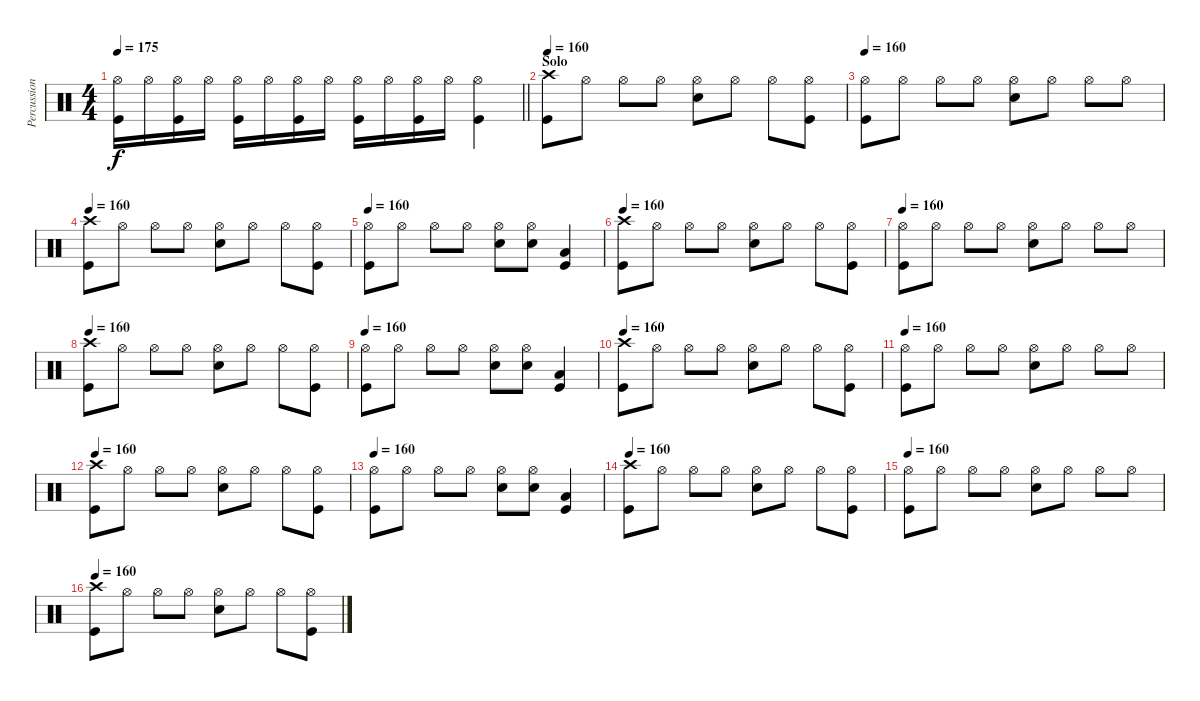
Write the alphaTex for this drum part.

\track ("Percussion" "Percussion") {instrument percussion}
\staff {score}
\articulation defaults
\ts (4 4)
\tempo 175
\clef neutral
\barLineRight lightlight
\ks c
("Hi-Hat (open)" "Kick (hit)").16{dy f} "Hi-Hat (open)".16 ("Hi-Hat (open)" "Kick (hit)").16 "Hi-Hat (open)".16 ("Hi-Hat (open)" "Kick (hit)").16 "Hi-Hat (open)".16 ("Hi-Hat (open)" "Kick (hit)").16 "Hi-Hat (open)".16 ("Hi-Hat (open)" "Kick (hit)").16 "Hi-Hat (open)".16 ("Hi-Hat (open)" "Kick (hit)").16 "Hi-Hat (open)".16 ("Hi-Hat (open)" "Kick (hit)").4 |
\section ("" "Solo")
\tempo 160
("Crash high (hit)" "Kick (hit)").8 "Hi-Hat (open)".8 "Hi-Hat (open)".8 "Hi-Hat (open)".8 ("Hi-Hat (open)" "Electric Snare (hit)").8 "Hi-Hat (open)".8 "Hi-Hat (open)".8 ("Hi-Hat (open)" "Kick (hit)").8 |
\tempo 160
("Hi-Hat (open)" "Kick (hit)").8 "Hi-Hat (open)".8 "Hi-Hat (open)".8 "Hi-Hat (open)".8 ("Hi-Hat (open)" "Electric Snare (hit)").8 "Hi-Hat (open)".8 "Hi-Hat (open)".8 "Hi-Hat (open)".8 |
\tempo 160
("Crash high (hit)" "Kick (hit)").8 "Hi-Hat (open)".8 "Hi-Hat (open)".8 "Hi-Hat (open)".8 ("Hi-Hat (open)" "Electric Snare (hit)").8 "Hi-Hat (open)".8 "Hi-Hat (open)".8 ("Hi-Hat (open)" "Kick (hit)").8 |
\tempo 160
("Hi-Hat (open)" "Kick (hit)").8 "Hi-Hat (open)".8 "Hi-Hat (open)".8 "Hi-Hat (open)".8 ("Hi-Hat (open)" "Electric Snare (hit)").8 ("Hi-Hat (open)" "Electric Snare (hit)").8 ("Low Floor Tom (hit)" "Kick (hit)").4 |
\tempo 160
("Crash high (hit)" "Kick (hit)").8 "Hi-Hat (open)".8 "Hi-Hat (open)".8 "Hi-Hat (open)".8 ("Hi-Hat (open)" "Electric Snare (hit)").8 "Hi-Hat (open)".8 "Hi-Hat (open)".8 ("Hi-Hat (open)" "Kick (hit)").8 |
\tempo 160
("Hi-Hat (open)" "Kick (hit)").8 "Hi-Hat (open)".8 "Hi-Hat (open)".8 "Hi-Hat (open)".8 ("Hi-Hat (open)" "Electric Snare (hit)").8 "Hi-Hat (open)".8 "Hi-Hat (open)".8 "Hi-Hat (open)".8 |
\tempo 160
("Crash high (hit)" "Kick (hit)").8 "Hi-Hat (open)".8 "Hi-Hat (open)".8 "Hi-Hat (open)".8 ("Hi-Hat (open)" "Electric Snare (hit)").8 "Hi-Hat (open)".8 "Hi-Hat (open)".8 ("Hi-Hat (open)" "Kick (hit)").8 |
\tempo 160
("Hi-Hat (open)" "Kick (hit)").8 "Hi-Hat (open)".8 "Hi-Hat (open)".8 "Hi-Hat (open)".8 ("Hi-Hat (open)" "Electric Snare (hit)").8 ("Hi-Hat (open)" "Electric Snare (hit)").8 ("Low Floor Tom (hit)" "Kick (hit)").4 |
\tempo 160
("Crash high (hit)" "Kick (hit)").8 "Hi-Hat (open)".8 "Hi-Hat (open)".8 "Hi-Hat (open)".8 ("Hi-Hat (open)" "Electric Snare (hit)").8 "Hi-Hat (open)".8 "Hi-Hat (open)".8 ("Hi-Hat (open)" "Kick (hit)").8 |
\tempo 160
("Hi-Hat (open)" "Kick (hit)").8 "Hi-Hat (open)".8 "Hi-Hat (open)".8 "Hi-Hat (open)".8 ("Hi-Hat (open)" "Electric Snare (hit)").8 "Hi-Hat (open)".8 "Hi-Hat (open)".8 "Hi-Hat (open)".8 |
\tempo 160
("Crash high (hit)" "Kick (hit)").8 "Hi-Hat (open)".8 "Hi-Hat (open)".8 "Hi-Hat (open)".8 ("Hi-Hat (open)" "Electric Snare (hit)").8 "Hi-Hat (open)".8 "Hi-Hat (open)".8 ("Hi-Hat (open)" "Kick (hit)").8 |
\tempo 160
("Hi-Hat (open)" "Kick (hit)").8 "Hi-Hat (open)".8 "Hi-Hat (open)".8 "Hi-Hat (open)".8 ("Hi-Hat (open)" "Electric Snare (hit)").8 ("Hi-Hat (open)" "Electric Snare (hit)").8 ("Low Floor Tom (hit)" "Kick (hit)").4 |
\tempo 160
("Crash high (hit)" "Kick (hit)").8 "Hi-Hat (open)".8 "Hi-Hat (open)".8 "Hi-Hat (open)".8 ("Hi-Hat (open)" "Electric Snare (hit)").8 "Hi-Hat (open)".8 "Hi-Hat (open)".8 ("Hi-Hat (open)" "Kick (hit)").8 |
\tempo 160
("Hi-Hat (open)" "Kick (hit)").8 "Hi-Hat (open)".8 "Hi-Hat (open)".8 "Hi-Hat (open)".8 ("Hi-Hat (open)" "Electric Snare (hit)").8 "Hi-Hat (open)".8 "Hi-Hat (open)".8 "Hi-Hat (open)".8 |
\tempo 160
("Crash high (hit)" "Kick (hit)").8 "Hi-Hat (open)".8 "Hi-Hat (open)".8 "Hi-Hat (open)".8 ("Hi-Hat (open)" "Electric Snare (hit)").8 "Hi-Hat (open)".8 "Hi-Hat (open)".8 ("Hi-Hat (open)" "Kick (hit)").8
